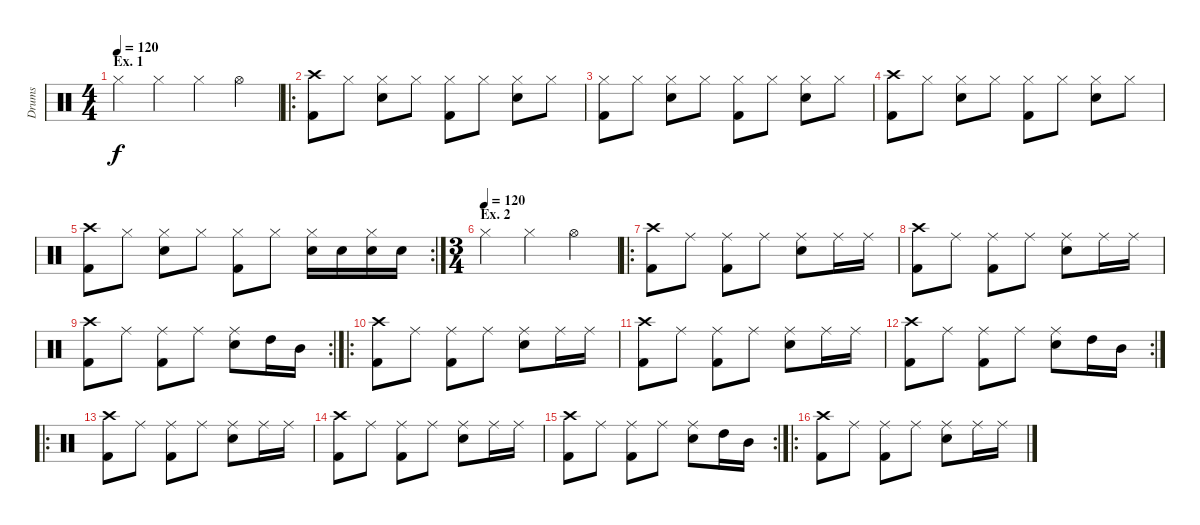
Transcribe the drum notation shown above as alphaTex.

\track ("Drums" "Drums") {instrument percussion}
\staff {score}
\articulation defaults
\ts (4 4)
\section ("" "Ex. 1")
\tempo 120
\tempo 220
\tempo 120
\clef neutral
\ks c "Hi-Hat (closed)".4{dy f} "Hi-Hat (closed)".4 "Hi-Hat (closed)".4 "Hi-Hat (open)".4
|
\ro
("Crash high (hit)" "Kick (hit) 2").8 "Hi-Hat (closed)".8 ("Hi-Hat (closed)" "Snare (hit) 2").8 "Hi-Hat (closed)".8 ("Hi-Hat (closed)" "Kick (hit) 2").8 "Hi-Hat (closed)".8 ("Hi-Hat (closed)" "Snare (hit) 2").8 "Hi-Hat (closed)".8 |
("Hi-Hat (closed)" "Kick (hit) 2").8 "Hi-Hat (closed)".8 ("Hi-Hat (closed)" "Snare (hit) 2").8 "Hi-Hat (closed)".8 ("Hi-Hat (closed)" "Kick (hit) 2").8 "Hi-Hat (closed)".8 ("Hi-Hat (closed)" "Snare (hit) 2").8 "Hi-Hat (closed)".8 |
("Crash high (hit)" "Kick (hit) 2").8 "Hi-Hat (closed)".8 ("Hi-Hat (closed)" "Snare (hit) 2").8 "Hi-Hat (closed)".8 ("Hi-Hat (closed)" "Kick (hit) 2").8 "Hi-Hat (closed)".8 ("Hi-Hat (closed)" "Snare (hit) 2").8 "Hi-Hat (closed)".8 |
\rc 2
("Crash high (hit)" "Kick (hit) 2").8 "Hi-Hat (closed)".8 ("Hi-Hat (closed)" "Snare (hit) 2").8 "Hi-Hat (closed)".8 ("Hi-Hat (closed)" "Kick (hit) 2").8 "Hi-Hat (closed)".8 ("Hi-Hat (closed)" "Snare (hit) 2").16 "Snare (hit) 2".16 ("Hi-Hat (closed)" "Snare (hit) 2").16 "Snare (hit) 2".16 |
\ts (3 4)
\section ("" "Ex. 2")
\tempo (120)
"Hi-Hat (closed)".4 "Hi-Hat (closed)".4 "Hi-Hat (open)".4 |
\ro
("Crash high (hit)" "Kick (hit) 2").8 "Ride (middle)".8 ("Ride (middle)" "Kick (hit) 2").8 "Ride (middle)".8 ("Ride (middle)" "Snare (hit) 2").8 "Ride (middle)".16 "Ride (middle)".16 |
("Crash high (hit)" "Kick (hit) 2").8 "Ride (middle)".8 ("Ride (middle)" "Kick (hit) 2").8 "Ride (middle)".8 ("Ride (middle)" "Snare (hit) 2").8 "Ride (middle)".16 "Ride (middle)".16 |
\rc 2
("Crash high (hit)" "Kick (hit) 2").8 "Ride (middle)".8 ("Ride (middle)" "Kick (hit) 2").8 "Ride (middle)".8 ("Ride (middle)" "Snare (hit) 2").8 "High Tom (hit)".16 "Mid Tom (hit)".16 |
\ro
("Crash high (hit)" "Kick (hit) 2").8 "Ride (middle)".8 ("Ride (middle)" "Kick (hit) 2").8 "Ride (middle)".8 ("Ride (middle)" "Snare (hit) 2").8 "Ride (middle)".16 "Ride (middle)".16 |
("Crash high (hit)" "Kick (hit) 2").8 "Ride (middle)".8 ("Ride (middle)" "Kick (hit) 2").8 "Ride (middle)".8 ("Ride (middle)" "Snare (hit) 2").8 "Ride (middle)".16 "Ride (middle)".16 |
\rc 2
("Crash high (hit)" "Kick (hit) 2").8 "Ride (middle)".8 ("Ride (middle)" "Kick (hit) 2").8 "Ride (middle)".8 ("Ride (middle)" "Snare (hit) 2").8 "High Tom (hit)".16 "Mid Tom (hit)".16 |
\ro
("Crash high (hit)" "Kick (hit) 2").8 "Ride (middle)".8 ("Ride (middle)" "Kick (hit) 2").8 "Ride (middle)".8 ("Ride (middle)" "Snare (hit) 2").8 "Ride (middle)".16 "Ride (middle)".16 |
("Crash high (hit)" "Kick (hit) 2").8 "Ride (middle)".8 ("Ride (middle)" "Kick (hit) 2").8 "Ride (middle)".8 ("Ride (middle)" "Snare (hit) 2").8 "Ride (middle)".16 "Ride (middle)".16 |
\rc 2
("Crash high (hit)" "Kick (hit) 2").8 "Ride (middle)".8 ("Ride (middle)" "Kick (hit) 2").8 "Ride (middle)".8 ("Ride (middle)" "Snare (hit) 2").8 "High Tom (hit)".16 "Mid Tom (hit)".16 |
\ro
("Crash high (hit)" "Kick (hit) 2").8 "Ride (middle)".8 ("Ride (middle)" "Kick (hit) 2").8 "Ride (middle)".8 ("Ride (middle)" "Snare (hit) 2").8 "Ride (middle)".16 "Ride (middle)".16
